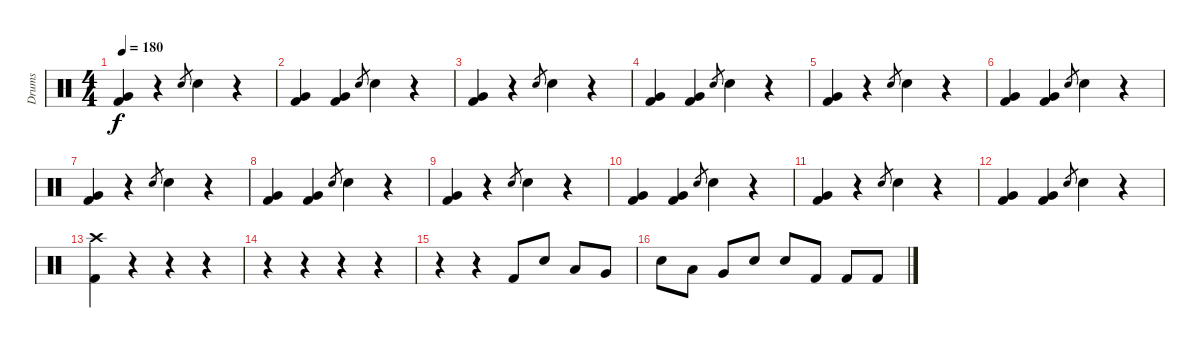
\track ("Drums" "Drums") {instrument percussion}
\staff {score}
\articulation defaults
\ts (4 4)
\tempo 180
\clef neutral
\ks c
("Very Low Tom (hit)" "Kick (hit) 2").4{dy f} r.4 "Electric Snare (hit)".8{gr} "Electric Snare (hit)".4 r.4 |
("Very Low Tom (hit)" "Kick (hit) 2").4 ("Very Low Tom (hit)" "Kick (hit) 2").4 "Electric Snare (hit)".8{gr} "Electric Snare (hit)".4 r.4 |
("Very Low Tom (hit)" "Kick (hit) 2").4 r.4 "Electric Snare (hit)".8{gr} "Electric Snare (hit)".4 r.4 |
("Very Low Tom (hit)" "Kick (hit) 2").4 ("Very Low Tom (hit)" "Kick (hit) 2").4 "Electric Snare (hit)".8{gr} "Electric Snare (hit)".4 r.4 |
("Very Low Tom (hit)" "Kick (hit) 2").4 r.4 "Electric Snare (hit)".8{gr} "Electric Snare (hit)".4 r.4 |
("Very Low Tom (hit)" "Kick (hit) 2").4 ("Very Low Tom (hit)" "Kick (hit) 2").4 "Electric Snare (hit)".8{gr} "Electric Snare (hit)".4 r.4 |
("Very Low Tom (hit)" "Kick (hit) 2").4 r.4 "Electric Snare (hit)".8{gr} "Electric Snare (hit)".4 r.4 |
("Very Low Tom (hit)" "Kick (hit) 2").4 ("Very Low Tom (hit)" "Kick (hit) 2").4 "Electric Snare (hit)".8{gr} "Electric Snare (hit)".4 r.4 |
("Very Low Tom (hit)" "Kick (hit) 2").4 r.4 "Electric Snare (hit)".8{gr} "Electric Snare (hit)".4 r.4 |
("Very Low Tom (hit)" "Kick (hit) 2").4 ("Very Low Tom (hit)" "Kick (hit) 2").4 "Electric Snare (hit)".8{gr} "Electric Snare (hit)".4 r.4 |
("Very Low Tom (hit)" "Kick (hit) 2").4 r.4 "Electric Snare (hit)".8{gr} "Electric Snare (hit)".4 r.4 |
("Very Low Tom (hit)" "Kick (hit) 2").4 ("Very Low Tom (hit)" "Kick (hit) 2").4 "Electric Snare (hit)".8{gr} "Electric Snare (hit)".4 r.4 |
("Crash high (hit)" "Kick (hit) 2").4 r.4 r.4 r.4 |
r.4 r.4 r.4 r.4 |
r.4 r.4 "Kick (hit) 2".8 "Electric Snare (hit)".8 "Low Tom (hit)".8 "Very Low Tom (hit)".8 |
"Electric Snare (hit)".8 "Low Tom (hit)".8 "Very Low Tom (hit)".8 "Electric Snare (hit)".8 "Electric Snare (hit)".8 "Kick (hit) 2".8 "Kick (hit) 2".8 "Kick (hit) 2".8
